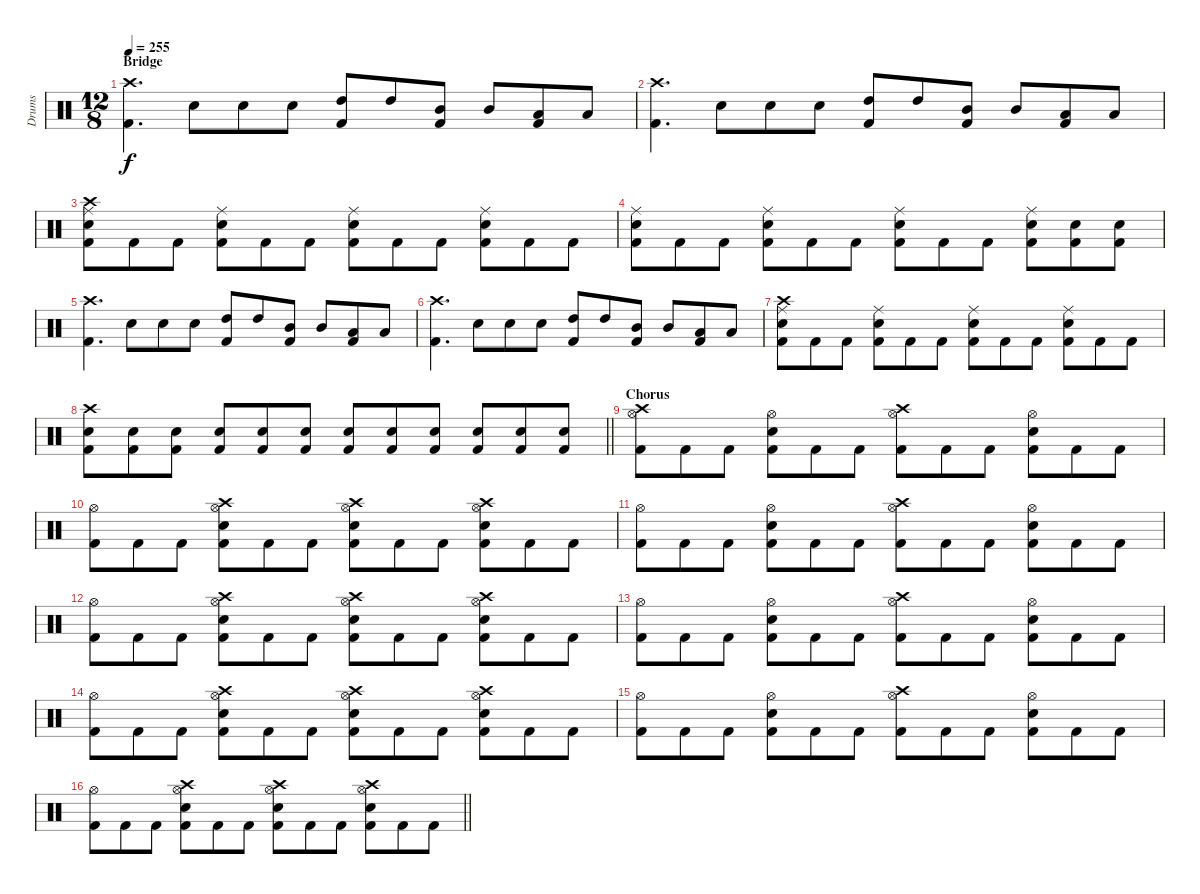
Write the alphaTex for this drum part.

\track ("Drums" "Drums") {instrument percussion}
\staff {score}
\articulation defaults
\ts (12 8)
\section ("" "Bridge")
\tempo 255
\clef neutral
\ks c
("Crash high (hit)" "Kick (hit) 2").4{d dy f} "Snare (hit) 2".8 "Snare (hit) 2".8 "Snare (hit) 2".8 ("High Tom (hit)" "Kick (hit) 2").8 "High Tom (hit)".8 ("Mid Tom (hit)" "Kick (hit) 2").8 "Mid Tom (hit)".8 ("Low Tom (hit)" "Kick (hit) 2").8 "Low Tom (hit)".8 |
("Crash high (hit)" "Kick (hit) 2").4{d} "Snare (hit) 2".8 "Snare (hit) 2".8 "Snare (hit) 2".8 ("High Tom (hit)" "Kick (hit) 2").8 "High Tom (hit)".8 ("Mid Tom (hit)" "Kick (hit) 2").8 "Mid Tom (hit)".8 ("Low Tom (hit)" "Kick (hit) 2").8 "Low Tom (hit)".8 |
("Crash high (hit)" "Ride (middle)" "Snare (hit) 2" "Kick (hit) 2").8 "Kick (hit) 2".8 "Kick (hit) 2".8 ("Ride (middle)" "Snare (hit) 2" "Kick (hit) 2").8 "Kick (hit) 2".8 "Kick (hit) 2".8 ("Ride (middle)" "Snare (hit) 2" "Kick (hit) 2").8 "Kick (hit) 2".8 "Kick (hit) 2".8 ("Ride (middle)" "Snare (hit) 2" "Kick (hit) 2").8 "Kick (hit) 2".8 "Kick (hit) 2".8 |
("Ride (middle)" "Snare (hit) 2" "Kick (hit) 2").8 "Kick (hit) 2".8 "Kick (hit) 2".8 ("Ride (middle)" "Snare (hit) 2" "Kick (hit) 2").8 "Kick (hit) 2".8 "Kick (hit) 2".8 ("Ride (middle)" "Snare (hit) 2" "Kick (hit) 2").8 "Kick (hit) 2".8 "Kick (hit) 2".8 ("Ride (middle)" "Snare (hit) 2" "Kick (hit) 2").8 ("Snare (hit) 2" "Kick (hit) 2").8 ("Snare (hit) 2" "Kick (hit) 2").8 |
("Crash high (hit)" "Kick (hit) 2").4{d} "Snare (hit) 2".8 "Snare (hit) 2".8 "Snare (hit) 2".8 ("High Tom (hit)" "Kick (hit) 2").8 "High Tom (hit)".8 ("Mid Tom (hit)" "Kick (hit) 2").8 "Mid Tom (hit)".8 ("Low Tom (hit)" "Kick (hit) 2").8 "Low Tom (hit)".8 |
("Crash high (hit)" "Kick (hit) 2").4{d} "Snare (hit) 2".8 "Snare (hit) 2".8 "Snare (hit) 2".8 ("High Tom (hit)" "Kick (hit) 2").8 "High Tom (hit)".8 ("Mid Tom (hit)" "Kick (hit) 2").8 "Mid Tom (hit)".8 ("Low Tom (hit)" "Kick (hit) 2").8 "Low Tom (hit)".8 |
("Crash high (hit)" "Ride (middle)" "Snare (hit) 2" "Kick (hit) 2").8 "Kick (hit) 2".8 "Kick (hit) 2".8 ("Ride (middle)" "Snare (hit) 2" "Kick (hit) 2").8 "Kick (hit) 2".8 "Kick (hit) 2".8 ("Ride (middle)" "Snare (hit) 2" "Kick (hit) 2").8 "Kick (hit) 2".8 "Kick (hit) 2".8 ("Ride (middle)" "Snare (hit) 2" "Kick (hit) 2").8 "Kick (hit) 2".8 "Kick (hit) 2".8 |
\barLineRight lightlight
("Crash high (hit)" "Snare (hit) 2" "Kick (hit) 2").8 ("Snare (hit) 2" "Kick (hit) 2").8 ("Snare (hit) 2" "Kick (hit) 2").8 ("Snare (hit) 2" "Kick (hit) 2").8 ("Snare (hit) 2" "Kick (hit) 2").8 ("Snare (hit) 2" "Kick (hit) 2").8 ("Snare (hit) 2" "Kick (hit) 2").8 ("Snare (hit) 2" "Kick (hit) 2").8 ("Snare (hit) 2" "Kick (hit) 2").8 ("Snare (hit) 2" "Kick (hit) 2").8 ("Snare (hit) 2" "Kick (hit) 2").8 ("Snare (hit) 2" "Kick (hit) 2").8 |
\section ("" "Chorus")
("Crash high (hit)" "Hi-Hat (open)" "Kick (hit) 2").8 "Kick (hit) 2".8 "Kick (hit) 2".8 ("Hi-Hat (open)" "Snare (hit) 2" "Kick (hit) 2").8 "Kick (hit) 2".8 "Kick (hit) 2".8 ("Crash high (hit)" "Hi-Hat (open)" "Kick (hit) 2").8 "Kick (hit) 2".8 "Kick (hit) 2".8 ("Hi-Hat (open)" "Snare (hit) 2" "Kick (hit) 2").8 "Kick (hit) 2".8 "Kick (hit) 2".8 |
("Hi-Hat (open)" "Kick (hit) 2").8 "Kick (hit) 2".8 "Kick (hit) 2".8 ("Crash high (hit)" "Hi-Hat (open)" "Snare (hit) 2" "Kick (hit) 2").8 "Kick (hit) 2".8 "Kick (hit) 2".8 ("Crash high (hit)" "Hi-Hat (open)" "Snare (hit) 2" "Kick (hit) 2").8 "Kick (hit) 2".8 "Kick (hit) 2".8 ("Crash high (hit)" "Hi-Hat (open)" "Snare (hit) 2" "Kick (hit) 2").8 "Kick (hit) 2".8 "Kick (hit) 2".8 |
("Hi-Hat (open)" "Kick (hit) 2").8 "Kick (hit) 2".8 "Kick (hit) 2".8 ("Hi-Hat (open)" "Snare (hit) 2" "Kick (hit) 2").8 "Kick (hit) 2".8 "Kick (hit) 2".8 ("Crash high (hit)" "Hi-Hat (open)" "Kick (hit) 2").8 "Kick (hit) 2".8 "Kick (hit) 2".8 ("Hi-Hat (open)" "Snare (hit) 2" "Kick (hit) 2").8 "Kick (hit) 2".8 "Kick (hit) 2".8 |
("Hi-Hat (open)" "Kick (hit) 2").8 "Kick (hit) 2".8 "Kick (hit) 2".8 ("Crash high (hit)" "Hi-Hat (open)" "Snare (hit) 2" "Kick (hit) 2").8 "Kick (hit) 2".8 "Kick (hit) 2".8 ("Crash high (hit)" "Hi-Hat (open)" "Snare (hit) 2" "Kick (hit) 2").8 "Kick (hit) 2".8 "Kick (hit) 2".8 ("Crash high (hit)" "Hi-Hat (open)" "Snare (hit) 2" "Kick (hit) 2").8 "Kick (hit) 2".8 "Kick (hit) 2".8 |
("Hi-Hat (open)" "Kick (hit) 2").8 "Kick (hit) 2".8 "Kick (hit) 2".8 ("Hi-Hat (open)" "Snare (hit) 2" "Kick (hit) 2").8 "Kick (hit) 2".8 "Kick (hit) 2".8 ("Crash high (hit)" "Hi-Hat (open)" "Kick (hit) 2").8 "Kick (hit) 2".8 "Kick (hit) 2".8 ("Hi-Hat (open)" "Snare (hit) 2" "Kick (hit) 2").8 "Kick (hit) 2".8 "Kick (hit) 2".8 |
("Hi-Hat (open)" "Kick (hit) 2").8 "Kick (hit) 2".8 "Kick (hit) 2".8 ("Crash high (hit)" "Hi-Hat (open)" "Snare (hit) 2" "Kick (hit) 2").8 "Kick (hit) 2".8 "Kick (hit) 2".8 ("Crash high (hit)" "Hi-Hat (open)" "Snare (hit) 2" "Kick (hit) 2").8 "Kick (hit) 2".8 "Kick (hit) 2".8 ("Crash high (hit)" "Hi-Hat (open)" "Snare (hit) 2" "Kick (hit) 2").8 "Kick (hit) 2".8 "Kick (hit) 2".8 |
("Hi-Hat (open)" "Kick (hit) 2").8 "Kick (hit) 2".8 "Kick (hit) 2".8 ("Hi-Hat (open)" "Snare (hit) 2" "Kick (hit) 2").8 "Kick (hit) 2".8 "Kick (hit) 2".8 ("Crash high (hit)" "Hi-Hat (open)" "Kick (hit) 2").8 "Kick (hit) 2".8 "Kick (hit) 2".8 ("Hi-Hat (open)" "Snare (hit) 2" "Kick (hit) 2").8 "Kick (hit) 2".8 "Kick (hit) 2".8 |
\barLineRight lightlight
("Hi-Hat (open)" "Kick (hit) 2").8 "Kick (hit) 2".8 "Kick (hit) 2".8 ("Crash high (hit)" "Hi-Hat (open)" "Snare (hit) 2" "Kick (hit) 2").8 "Kick (hit) 2".8 "Kick (hit) 2".8 ("Crash high (hit)" "Hi-Hat (open)" "Snare (hit) 2" "Kick (hit) 2").8 "Kick (hit) 2".8 "Kick (hit) 2".8 ("Crash high (hit)" "Hi-Hat (open)" "Snare (hit) 2" "Kick (hit) 2").8 "Kick (hit) 2".8 "Kick (hit) 2".8
